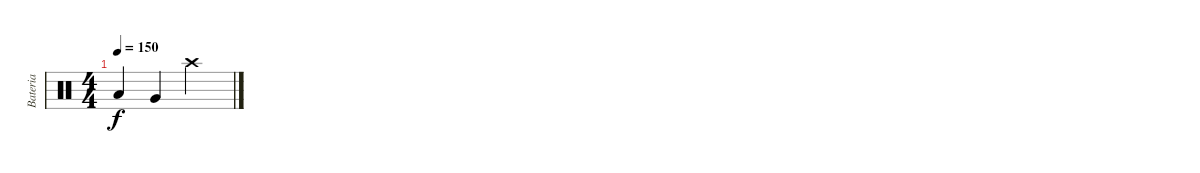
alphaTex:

\track ("Bateria" "Bateria") {instrument percussion}
\staff {score}
\articulation defaults
\ts (4 4)
\tempo 150
\clef neutral
\ks c "Low Tom (hit)".4{dy f} "Very Low Tom (hit)".4 "Crash high (hit)".2
